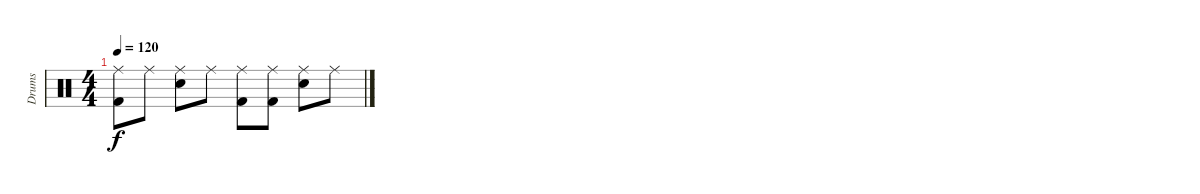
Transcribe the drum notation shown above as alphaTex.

\track ("Drums" "Drums") {instrument percussion}
\staff {score}
\articulation defaults
\ts (4 4)
\tempo 120
\clef neutral
\ks c
("Ride (middle)" "Kick (hit) 2").8{dy f} "Ride (middle)".8 ("Ride (middle)" "Snare (hit) 2").8 "Ride (middle)".8 ("Ride (middle)" "Kick (hit) 2").8 ("Ride (middle)" "Kick (hit) 2").8 ("Ride (middle)" "Snare (hit) 2").8 "Ride (middle)".8
